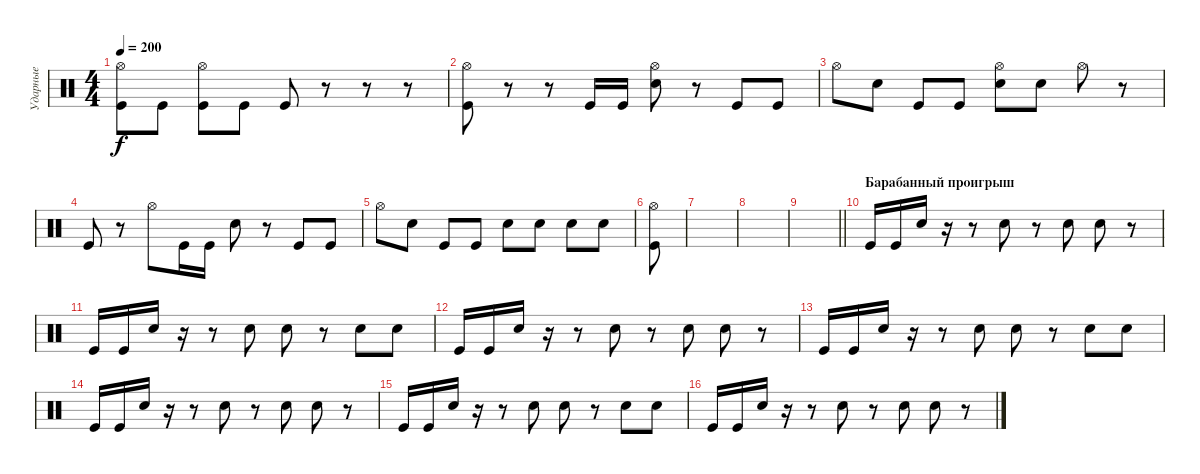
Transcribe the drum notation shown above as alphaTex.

\track ("Ударные" "Ударные") {instrument percussion}
\staff {score}
\articulation defaults
\ts (4 4)
\tempo 200
\clef neutral
\ks c
("Hi-Hat (open)" "Kick (hit)").8{dy f} "Kick (hit)".8 ("Hi-Hat (open)" "Kick (hit)").8 "Kick (hit)".8 "Kick (hit)".8 r.8 r.8 r.8 |
("Hi-Hat (open)" "Kick (hit)").8 r.8 r.8 "Kick (hit)".16 "Kick (hit)".16 ("Hi-Hat (open)" "Snare (hit) 2").8 r.8 "Kick (hit)".8 "Kick (hit)".8 |
"Hi-Hat (open)".8 "Snare (hit) 2".8 "Kick (hit)".8 "Kick (hit)".8 ("Hi-Hat (open)" "Snare (hit) 2").8 "Snare (hit) 2".8 "Hi-Hat (open)".8 r.8 |
"Kick (hit)".8 r.8 "Hi-Hat (open)".8 "Kick (hit)".16 "Kick (hit)".16 "Snare (hit) 2".8 r.8 "Kick (hit)".8 "Kick (hit)".8 |
"Hi-Hat (open)".8 "Snare (hit) 2".8 "Kick (hit)".8 "Kick (hit)".8 "Snare (hit) 2".8 "Snare (hit) 2".8 "Snare (hit) 2".8 "Snare (hit) 2".8 |
("Hi-Hat (open)" "Kick (hit)").8 |
|
|
\barLineRight lightlight
|
\section ("" "Барабанный проигрыш")
"Kick (hit)".16 "Kick (hit)".16 "Snare (hit) 2".16 r.16 r.8 "Snare (hit) 2".8 r.8 "Snare (hit) 2".8 "Snare (hit) 2".8 r.8 |
"Kick (hit)".16 "Kick (hit)".16 "Snare (hit) 2".16 r.16 r.8 "Snare (hit) 2".8 "Snare (hit) 2".8 r.8 "Snare (hit) 2".8 "Snare (hit) 2".8 |
"Kick (hit)".16 "Kick (hit)".16 "Snare (hit) 2".16 r.16 r.8 "Snare (hit) 2".8 r.8 "Snare (hit) 2".8 "Snare (hit) 2".8 r.8 |
"Kick (hit)".16 "Kick (hit)".16 "Snare (hit) 2".16 r.16 r.8 "Snare (hit) 2".8 "Snare (hit) 2".8 r.8 "Snare (hit) 2".8 "Snare (hit) 2".8 |
"Kick (hit)".16 "Kick (hit)".16 "Snare (hit) 2".16 r.16 r.8 "Snare (hit) 2".8 r.8 "Snare (hit) 2".8 "Snare (hit) 2".8 r.8 |
"Kick (hit)".16 "Kick (hit)".16 "Snare (hit) 2".16 r.16 r.8 "Snare (hit) 2".8 "Snare (hit) 2".8 r.8 "Snare (hit) 2".8 "Snare (hit) 2".8 |
"Kick (hit)".16 "Kick (hit)".16 "Snare (hit) 2".16 r.16 r.8 "Snare (hit) 2".8 r.8 "Snare (hit) 2".8 "Snare (hit) 2".8 r.8
